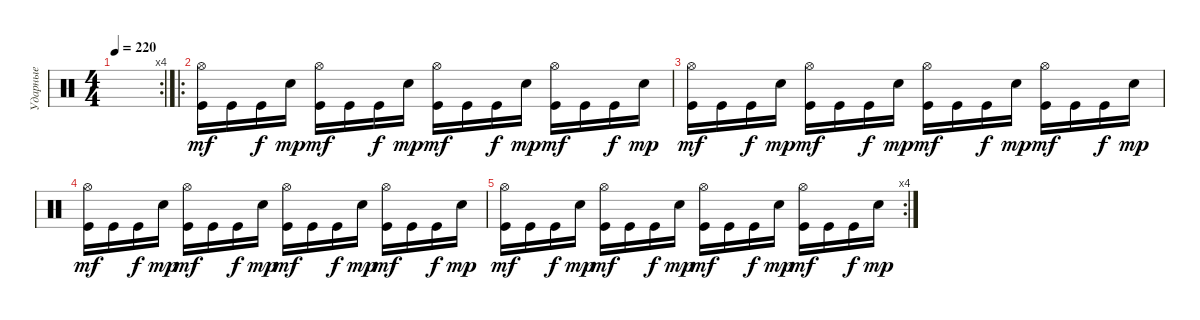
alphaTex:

\track ("Ударные" "Ударные") {instrument percussion}
\staff {score}
\articulation defaults
\rc 4
\ts (4 4)
\tempo 220
\clef neutral
\ks c
|
\ro
("Hi-Hat (open)" "Kick (hit)").16{dy mf} "Kick (hit)".16 "Kick (hit)".16{dy f} "Electric Snare (hit)".16{dy mp} ("Hi-Hat (open)" "Kick (hit)").16{dy mf} "Kick (hit)".16 "Kick (hit)".16{dy f} "Electric Snare (hit)".16{dy mp} ("Hi-Hat (open)" "Kick (hit)").16{dy mf} "Kick (hit)".16 "Kick (hit)".16{dy f} "Electric Snare (hit)".16{dy mp} ("Hi-Hat (open)" "Kick (hit)").16{dy mf} "Kick (hit)".16 "Kick (hit)".16{dy f} "Electric Snare (hit)".16{dy mp} |
("Hi-Hat (open)" "Kick (hit)").16{dy mf} "Kick (hit)".16 "Kick (hit)".16{dy f} "Electric Snare (hit)".16{dy mp} ("Hi-Hat (open)" "Kick (hit)").16{dy mf} "Kick (hit)".16 "Kick (hit)".16{dy f} "Electric Snare (hit)".16{dy mp} ("Hi-Hat (open)" "Kick (hit)").16{dy mf} "Kick (hit)".16 "Kick (hit)".16{dy f} "Electric Snare (hit)".16{dy mp} ("Hi-Hat (open)" "Kick (hit)").16{dy mf} "Kick (hit)".16 "Kick (hit)".16{dy f} "Electric Snare (hit)".16{dy mp} |
("Hi-Hat (open)" "Kick (hit)").16{dy mf} "Kick (hit)".16 "Kick (hit)".16{dy f} "Electric Snare (hit)".16{dy mp} ("Hi-Hat (open)" "Kick (hit)").16{dy mf} "Kick (hit)".16 "Kick (hit)".16{dy f} "Electric Snare (hit)".16{dy mp} ("Hi-Hat (open)" "Kick (hit)").16{dy mf} "Kick (hit)".16 "Kick (hit)".16{dy f} "Electric Snare (hit)".16{dy mp} ("Hi-Hat (open)" "Kick (hit)").16{dy mf} "Kick (hit)".16 "Kick (hit)".16{dy f} "Electric Snare (hit)".16{dy mp} |
\rc 4
("Hi-Hat (open)" "Kick (hit)").16{dy mf} "Kick (hit)".16 "Kick (hit)".16{dy f} "Electric Snare (hit)".16{dy mp} ("Hi-Hat (open)" "Kick (hit)").16{dy mf} "Kick (hit)".16 "Kick (hit)".16{dy f} "Electric Snare (hit)".16{dy mp} ("Hi-Hat (open)" "Kick (hit)").16{dy mf} "Kick (hit)".16 "Kick (hit)".16{dy f} "Electric Snare (hit)".16{dy mp} ("Hi-Hat (open)" "Kick (hit)").16{dy mf} "Kick (hit)".16 "Kick (hit)".16{dy f} "Electric Snare (hit)".16{dy mp}
